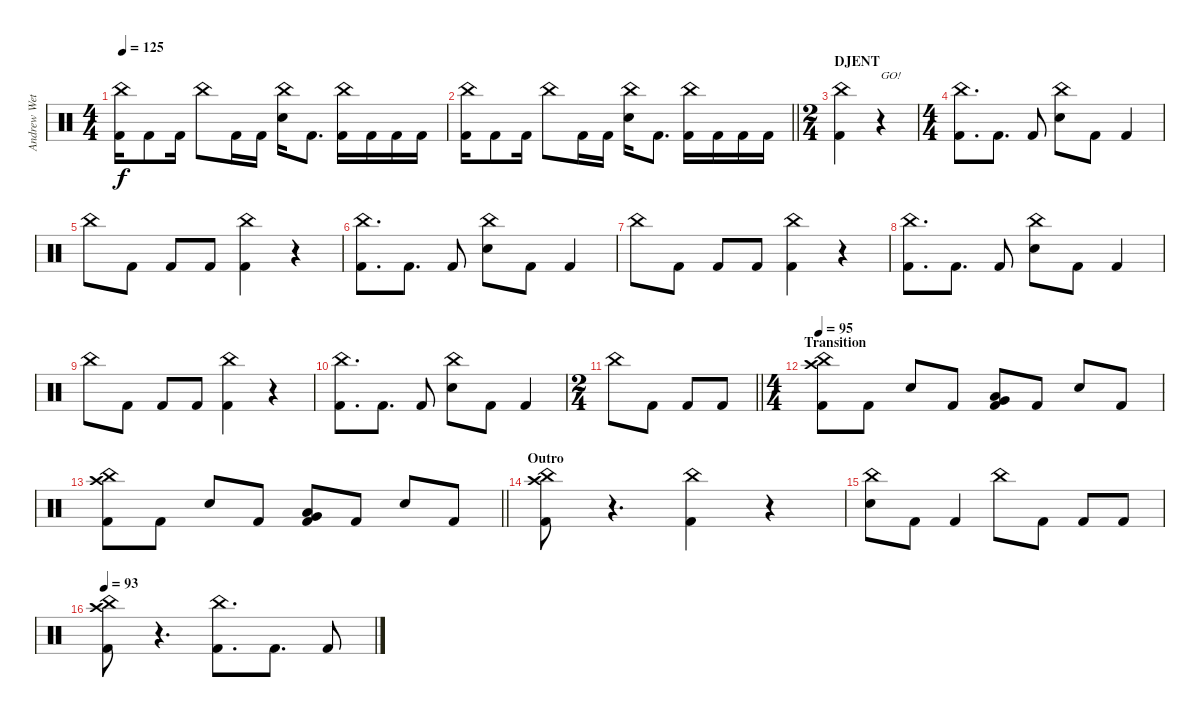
\track ("Andrew Wetzel" "Andrew Wet") {instrument percussion}
\staff {score}
\articulation defaults
\ts (4 4)
\tempo 125
\clef neutral
\ks c
("China (hit)" "Kick (hit) 2").16{dy f} "Kick (hit) 2".8 "Kick (hit) 2".16 "China (hit)".8 "Kick (hit) 2".16 "Kick (hit) 2".16 ("China (hit)" "Snare (hit) 2").16 "Kick (hit) 2".8{d} ("China (hit)" "Kick (hit) 2").16 "Kick (hit) 2".16 "Kick (hit) 2".16 "Kick (hit) 2".16 |
\barLineRight lightlight
("China (hit)" "Kick (hit) 2").16 "Kick (hit) 2".8 "Kick (hit) 2".16 "China (hit)".8 "Kick (hit) 2".16 "Kick (hit) 2".16 ("China (hit)" "Snare (hit) 2").16 "Kick (hit) 2".8{d} ("China (hit)" "Kick (hit) 2").16 "Kick (hit) 2".16 "Kick (hit) 2".16 "Kick (hit) 2".16 |
\ts (2 4)
\section ("" "DJENT")
("China (hit)" "Kick (hit) 2").4 r.4{txt "GO!" volume 0} |
\ts (4 4)
("China (hit)" "Kick (hit) 2").8{d volume 13} "Kick (hit) 2".8{d} "Kick (hit) 2".8 ("China (hit)" "Snare (hit) 2").8 "Kick (hit) 2".8 "Kick (hit) 2".4 |
"China (hit)".8 "Kick (hit) 2".8 "Kick (hit) 2".8 "Kick (hit) 2".8 ("China (hit)" "Kick (hit) 2").4 r.4 |
("China (hit)" "Kick (hit) 2").8{d} "Kick (hit) 2".8{d} "Kick (hit) 2".8 ("China (hit)" "Snare (hit) 2").8 "Kick (hit) 2".8 "Kick (hit) 2".4 |
"China (hit)".8 "Kick (hit) 2".8 "Kick (hit) 2".8 "Kick (hit) 2".8 ("China (hit)" "Kick (hit) 2").4 r.4 |
("China (hit)" "Kick (hit) 2").8{d} "Kick (hit) 2".8{d} "Kick (hit) 2".8 ("China (hit)" "Snare (hit) 2").8 "Kick (hit) 2".8 "Kick (hit) 2".4 |
"China (hit)".8 "Kick (hit) 2".8 "Kick (hit) 2".8 "Kick (hit) 2".8 ("China (hit)" "Kick (hit) 2").4 r.4 |
("China (hit)" "Kick (hit) 2").8{d} "Kick (hit) 2".8{d} "Kick (hit) 2".8 ("China (hit)" "Snare (hit) 2").8 "Kick (hit) 2".8 "Kick (hit) 2".4 |
\ts (2 4)
\barLineRight lightlight "China (hit)".8 "Kick (hit) 2".8 "Kick (hit) 2".8 "Kick (hit) 2".8
|
\ts (4 4)
\section ("" "Transition")
\tempo 95
("China (hit)" "Crash high (hit)" "Kick (hit) 2").8 "Kick (hit) 2".8 "Snare (hit) 2".8 "Kick (hit) 2".8 ("Very Low Tom (hit)" "Low Floor Tom (hit)" "Kick (hit) 2").8 "Kick (hit) 2".8 "Snare (hit) 2".8 "Kick (hit) 2".8 |
\barLineRight lightlight
("China (hit)" "Crash high (hit)" "Kick (hit) 2").8 "Kick (hit) 2".8 "Snare (hit) 2".8 "Kick (hit) 2".8 ("Very Low Tom (hit)" "Low Floor Tom (hit)" "Kick (hit) 2").8 "Kick (hit) 2".8 "Snare (hit) 2".8 "Kick (hit) 2".8 |
\section ("" "Outro")
("China (hit)" "Crash high (hit)" "Kick (hit) 2").8 r.4{d volume 0} ("China (hit)" "Kick (hit) 2").4{volume 13} r.4 |
("China (hit)" "Snare (hit) 2").8 "Kick (hit) 2".8 "Kick (hit) 2".4 "China (hit)".8 "Kick (hit) 2".8 "Kick (hit) 2".8 "Kick (hit) 2".8 |
\tempo 93
("China (hit)" "Crash high (hit)" "Kick (hit) 2").8 r.4{d volume 0} ("China (hit)" "Kick (hit) 2").8{d volume 13} "Kick (hit) 2".8{d} "Kick (hit) 2".8
